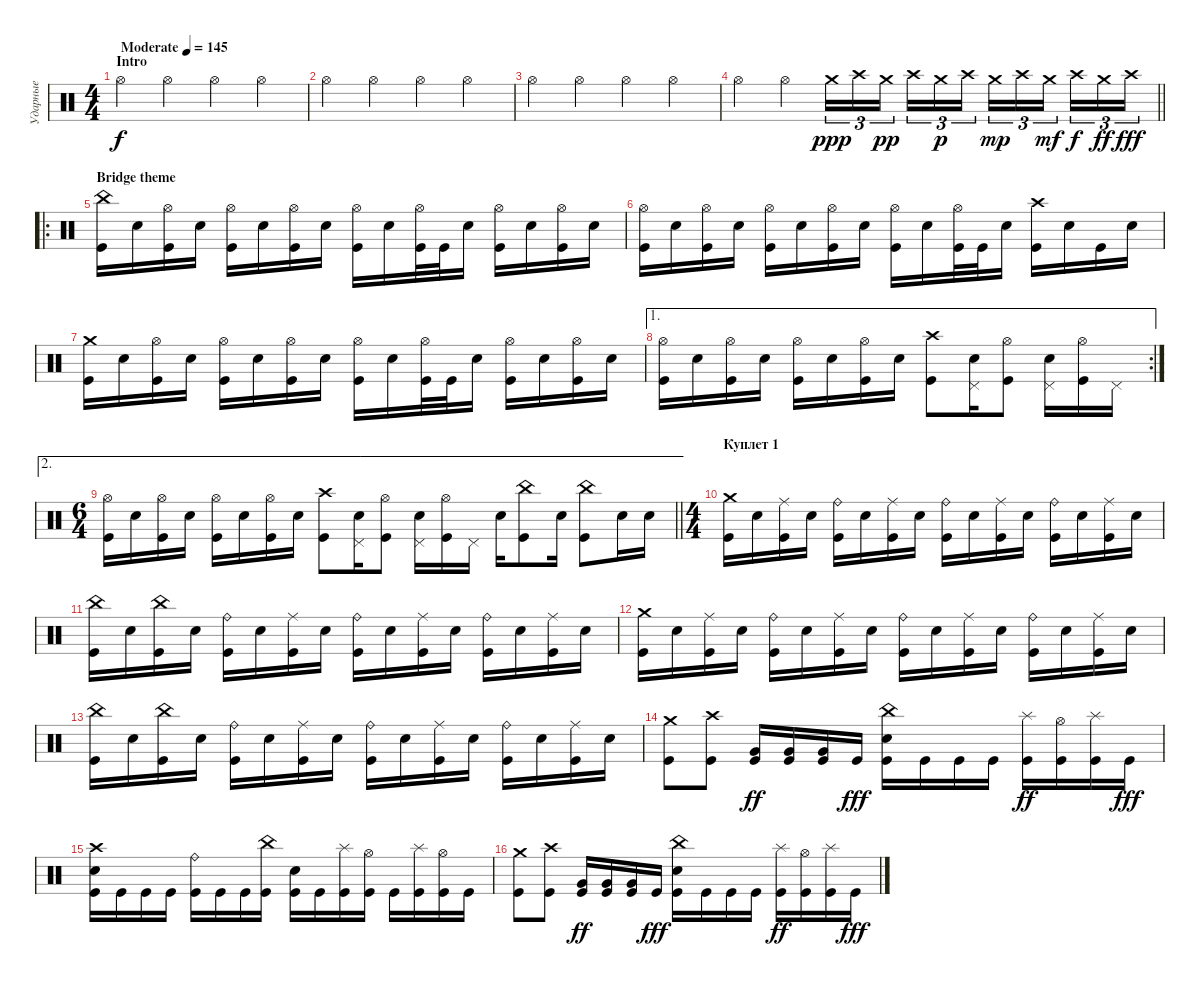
\track ("Ударные" "Ударные") {instrument percussion}
\staff {score}
\articulation defaults
\ts (4 4)
\section ("" "Intro")
\tempo (145 "Moderate")
\clef neutral
\ks c "Hi-Hat (open)".4{dy f} "Hi-Hat (open)".4 "Hi-Hat (open)".4 "Hi-Hat (open)".4
|
"Hi-Hat (open)".4 "Hi-Hat (open)".4 "Hi-Hat (open)".4 "Hi-Hat (open)".4 |
"Hi-Hat (open)".4 "Hi-Hat (open)".4 "Hi-Hat (open)".4 "Hi-Hat (open)".4 |
\barLineRight lightlight "Hi-Hat (open)".4 "Hi-Hat (open)".4 "Crash medium (hit)".16{tu (3 2) dy ppp} "Crash high (hit)".16{tu (3 2)} "Crash medium (hit)".16{tu (3 2) dy pp beam splitsecondary} "Crash high (hit)".16{tu (3 2)} "Crash medium (hit)".16{tu (3 2) dy p} "Crash high (hit)".16{tu (3 2)} "Crash medium (hit)".16{tu (3 2) dy mp} "Crash high (hit)".16{tu (3 2)} "Crash medium (hit)".16{tu (3 2) dy mf beam splitsecondary} "Crash high (hit)".16{tu (3 2) dy f} "Crash medium (hit)".16{tu (3 2) dy ff} "Crash high (hit)".16{tu (3 2) dy fff}
|
\ro
\section ("" "Bridge theme")
("China (hit)" "Kick (hit)").16 "Electric Snare (hit)".16 ("Kick (hit)" "Hi-Hat (open)").16 "Electric Snare (hit)".16 ("Kick (hit)" "Hi-Hat (open)").16 "Electric Snare (hit)".16 ("Kick (hit)" "Hi-Hat (open)").16 "Electric Snare (hit)".16 ("Kick (hit)" "Hi-Hat (open)").16 "Electric Snare (hit)".16 ("Kick (hit)" "Hi-Hat (open)").32 "Kick (hit)".32 "Electric Snare (hit)".16 ("Kick (hit)" "Hi-Hat (open)").16 "Electric Snare (hit)".16 ("Kick (hit)" "Hi-Hat (open)").16 "Electric Snare (hit)".16 |
("Hi-Hat (open)" "Kick (hit)").16 "Electric Snare (hit)".16 ("Kick (hit)" "Hi-Hat (open)").16 "Electric Snare (hit)".16 ("Kick (hit)" "Hi-Hat (open)").16 "Electric Snare (hit)".16 ("Kick (hit)" "Hi-Hat (open)").16 "Electric Snare (hit)".16 ("Kick (hit)" "Hi-Hat (open)").16 "Electric Snare (hit)".16 ("Kick (hit)" "Hi-Hat (open)").32 "Kick (hit)".32 "Electric Snare (hit)".16 ("Kick (hit)" "Crash high (hit)").16 "Electric Snare (hit)".16 "Kick (hit)".16 "Electric Snare (hit)".16 |
("Crash medium (hit)" "Kick (hit)").16 "Electric Snare (hit)".16 ("Kick (hit)" "Hi-Hat (open)").16 "Electric Snare (hit)".16 ("Kick (hit)" "Hi-Hat (open)").16 "Electric Snare (hit)".16 ("Kick (hit)" "Hi-Hat (open)").16 "Electric Snare (hit)".16 ("Kick (hit)" "Hi-Hat (open)").16 "Electric Snare (hit)".16 ("Kick (hit)" "Hi-Hat (open)").32 "Kick (hit)".32 "Electric Snare (hit)".16 ("Kick (hit)" "Hi-Hat (open)").16 "Electric Snare (hit)".16 ("Kick (hit)" "Hi-Hat (open)").16 "Electric Snare (hit)".16 |
\ae 1
\rc 2
("Hi-Hat (open)" "Kick (hit)").16 "Electric Snare (hit)".16 ("Kick (hit)" "Hi-Hat (open)").16 "Electric Snare (hit)".16 ("Kick (hit)" "Hi-Hat (open)").16 "Electric Snare (hit)".16 ("Kick (hit)" "Hi-Hat (open)").16 "Electric Snare (hit)".16 ("Kick (hit)" "Crash high (hit)").8 ("Electric Snare (hit)" "Pedal Hi-Hat (hit)").16 ("Hi-Hat (open)" "Kick (hit)").8 ("Electric Snare (hit)" "Pedal Hi-Hat (hit)").16 ("Kick (hit)" "Hi-Hat (open)").16 "Pedal Hi-Hat (hit)".16 |
\ae 2
\ts (6 4)
\barLineRight lightlight
("Hi-Hat (open)" "Kick (hit)").16 "Electric Snare (hit)".16 ("Kick (hit)" "Hi-Hat (open)").16 "Electric Snare (hit)".16 ("Kick (hit)" "Hi-Hat (open)").16 "Electric Snare (hit)".16 ("Kick (hit)" "Hi-Hat (open)").16 "Electric Snare (hit)".16 ("Kick (hit)" "Crash high (hit)").8 ("Electric Snare (hit)" "Pedal Hi-Hat (hit)").16 ("Hi-Hat (open)" "Kick (hit)").8 ("Electric Snare (hit)" "Pedal Hi-Hat (hit)").16 ("Kick (hit)" "Hi-Hat (open)").16 "Pedal Hi-Hat (hit)".16 "Electric Snare (hit)".16 ("China (hit)" "Kick (hit)").8 "Electric Snare (hit)".16 ("China (hit)" "Kick (hit)").8 "Electric Snare (hit)".16 "Electric Snare (hit)".16 |
\ts (4 4)
\section ("" "Куплет 1")
("Kick (hit)" "Crash medium (hit)").16 "Electric Snare (hit)".16 ("Kick (hit)" "Ride (middle)").16 "Electric Snare (hit)".16 ("Kick (hit)" "Ride (bell)").16 "Electric Snare (hit)".16 ("Kick (hit)" "Ride (middle)").16 "Electric Snare (hit)".16 ("Kick (hit)" "Ride (bell)").16 "Electric Snare (hit)".16 ("Kick (hit)" "Ride (middle)").16 "Electric Snare (hit)".16 ("Kick (hit)" "Ride (bell)").16 "Electric Snare (hit)".16 ("Kick (hit)" "Ride (middle)").16 "Electric Snare (hit)".16 |
("Kick (hit)" "China (hit)").16 "Electric Snare (hit)".16 ("Kick (hit)" "China (hit)").16 "Electric Snare (hit)".16 ("Kick (hit)" "Ride (bell)").16 "Electric Snare (hit)".16 ("Kick (hit)" "Ride (middle)").16 "Electric Snare (hit)".16 ("Kick (hit)" "Ride (bell)").16 "Electric Snare (hit)".16 ("Kick (hit)" "Ride (middle)").16 "Electric Snare (hit)".16 ("Kick (hit)" "Ride (bell)").16 "Electric Snare (hit)".16 ("Kick (hit)" "Ride (middle)").16 "Electric Snare (hit)".16 |
("Kick (hit)" "Crash medium (hit)").16 "Electric Snare (hit)".16 ("Kick (hit)" "Ride (middle)").16 "Electric Snare (hit)".16 ("Kick (hit)" "Ride (bell)").16 "Electric Snare (hit)".16 ("Kick (hit)" "Ride (middle)").16 "Electric Snare (hit)".16 ("Kick (hit)" "Ride (bell)").16 "Electric Snare (hit)".16 ("Kick (hit)" "Ride (middle)").16 "Electric Snare (hit)".16 ("Kick (hit)" "Ride (bell)").16 "Electric Snare (hit)".16 ("Kick (hit)" "Ride (middle)").16 "Electric Snare (hit)".16 |
("Kick (hit)" "China (hit)").16 "Electric Snare (hit)".16 ("Kick (hit)" "China (hit)").16 "Electric Snare (hit)".16 ("Kick (hit)" "Ride (bell)").16 "Electric Snare (hit)".16 ("Kick (hit)" "Ride (middle)").16 "Electric Snare (hit)".16 ("Kick (hit)" "Ride (bell)").16 "Electric Snare (hit)".16 ("Kick (hit)" "Ride (middle)").16 "Electric Snare (hit)".16 ("Kick (hit)" "Ride (bell)").16 "Electric Snare (hit)".16 ("Kick (hit)" "Ride (middle)").16 "Electric Snare (hit)".16 |
("Crash medium (hit)" "Kick (hit)").8 ("Crash high (hit)" "Kick (hit)").8 ("Kick (hit)" "Very Low Tom (hit)").16{dy ff} ("Kick (hit)" "Very Low Tom (hit)").16 ("Kick (hit)" "Very Low Tom (hit)").16 "Kick (hit)".16{dy fff} ("Kick (hit)" "Electric Snare (hit)" "China (hit)").16 "Kick (hit)".16 "Kick (hit)".16 "Kick (hit)".16 ("Kick (hit)" "Splash (hit)").16{dy ff} ("Kick (hit)" "Hi-Hat (open)").16 ("Kick (hit)" "Splash (hit)").16 "Kick (hit)".16{dy fff} |
("Kick (hit)" "Electric Snare (hit)" "Crash high (hit)").16 "Kick (hit)".16 "Kick (hit)".16 "Kick (hit)".16 ("Kick (hit)" "Ride (bell)").16 "Kick (hit)".16 "Kick (hit)".16 ("Kick (hit)" "China (hit)").16 ("Kick (hit)" "Electric Snare (hit)").16 "Kick (hit)".16 ("Kick (hit)" "Splash (hit)").16 ("Kick (hit)" "Hi-Hat (open)").16 "Kick (hit)".16 ("Kick (hit)" "Splash (hit)").16 ("Kick (hit)" "Hi-Hat (open)").16 "Kick (hit)".16 |
("Crash medium (hit)" "Kick (hit)").8 ("Crash high (hit)" "Kick (hit)").8 ("Kick (hit)" "Very Low Tom (hit)").16{dy ff} ("Kick (hit)" "Very Low Tom (hit)").16 ("Kick (hit)" "Very Low Tom (hit)").16 "Kick (hit)".16{dy fff} ("Kick (hit)" "Electric Snare (hit)" "China (hit)").16 "Kick (hit)".16 "Kick (hit)".16 "Kick (hit)".16 ("Kick (hit)" "Splash (hit)").16{dy ff} ("Kick (hit)" "Hi-Hat (open)").16 ("Kick (hit)" "Splash (hit)").16 "Kick (hit)".16{dy fff}
